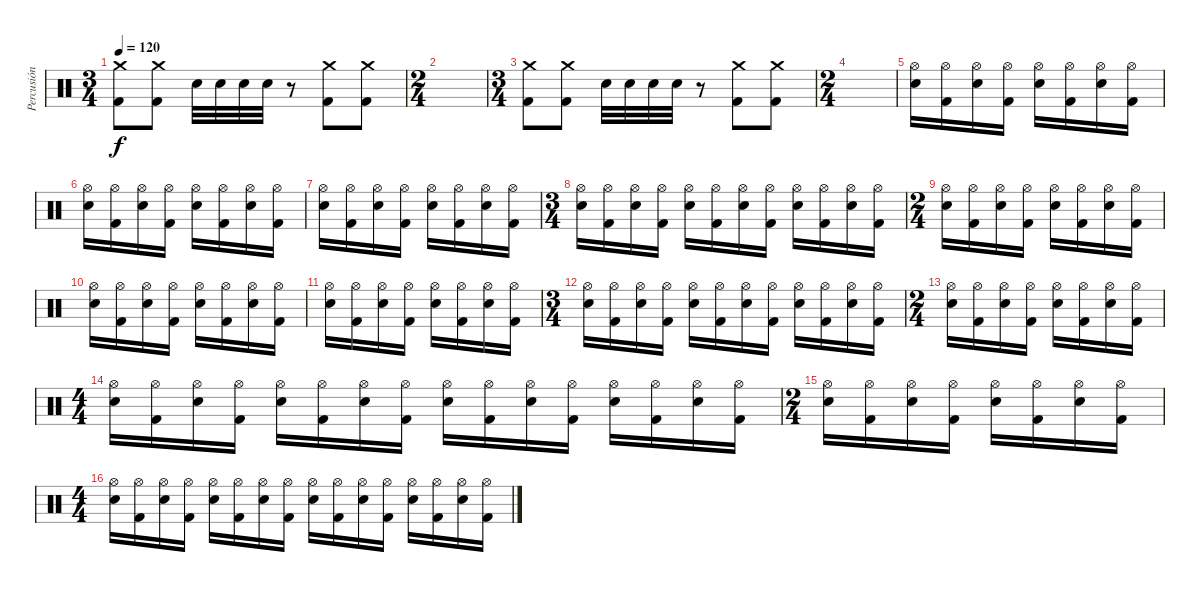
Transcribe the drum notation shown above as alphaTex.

\track ("Percusión" "Percusión") {instrument percussion}
\staff {score}
\articulation defaults
\ts (3 4)
\tempo 120
\clef neutral
\ks c
("Kick (hit) 2" "Crash medium (hit)").8{dy f} ("Kick (hit) 2" "Crash medium (hit)").8 "Snare (hit) 2".32 "Snare (hit) 2".32 "Snare (hit) 2".32 "Snare (hit) 2".32 r.8 ("Kick (hit) 2" "Crash medium (hit)").8 ("Kick (hit) 2" "Crash medium (hit)").8 |
\ts (2 4)
|
\ts (3 4)
("Kick (hit) 2" "Crash medium (hit)").8 ("Kick (hit) 2" "Crash medium (hit)").8 "Snare (hit) 2".32 "Snare (hit) 2".32 "Snare (hit) 2".32 "Snare (hit) 2".32 r.8 ("Kick (hit) 2" "Crash medium (hit)").8 ("Kick (hit) 2" "Crash medium (hit)").8 |
\ts (2 4)
|
("Hi-Hat (open)" "Snare (hit) 2").16 ("Hi-Hat (open)" "Kick (hit) 2").16 ("Hi-Hat (open)" "Snare (hit) 2").16 ("Hi-Hat (open)" "Kick (hit) 2").16 ("Hi-Hat (open)" "Snare (hit) 2").16 ("Hi-Hat (open)" "Kick (hit) 2").16 ("Hi-Hat (open)" "Snare (hit) 2").16 ("Hi-Hat (open)" "Kick (hit) 2").16 |
("Hi-Hat (open)" "Snare (hit) 2").16 ("Hi-Hat (open)" "Kick (hit) 2").16 ("Hi-Hat (open)" "Snare (hit) 2").16 ("Hi-Hat (open)" "Kick (hit) 2").16 ("Hi-Hat (open)" "Snare (hit) 2").16 ("Hi-Hat (open)" "Kick (hit) 2").16 ("Hi-Hat (open)" "Snare (hit) 2").16 ("Hi-Hat (open)" "Kick (hit) 2").16 |
("Hi-Hat (open)" "Snare (hit) 2").16 ("Hi-Hat (open)" "Kick (hit) 2").16 ("Hi-Hat (open)" "Snare (hit) 2").16 ("Hi-Hat (open)" "Kick (hit) 2").16 ("Hi-Hat (open)" "Snare (hit) 2").16 ("Hi-Hat (open)" "Kick (hit) 2").16 ("Hi-Hat (open)" "Snare (hit) 2").16 ("Hi-Hat (open)" "Kick (hit) 2").16 |
\ts (3 4)
("Snare (hit) 2" "Hi-Hat (open)").16 ("Kick (hit) 2" "Hi-Hat (open)").16 ("Snare (hit) 2" "Hi-Hat (open)").16 ("Kick (hit) 2" "Hi-Hat (open)").16 ("Snare (hit) 2" "Hi-Hat (open)").16 ("Kick (hit) 2" "Hi-Hat (open)").16 ("Snare (hit) 2" "Hi-Hat (open)").16 ("Kick (hit) 2" "Hi-Hat (open)").16 ("Snare (hit) 2" "Hi-Hat (open)").16 ("Kick (hit) 2" "Hi-Hat (open)").16 ("Snare (hit) 2" "Hi-Hat (open)").16 ("Kick (hit) 2" "Hi-Hat (open)").16 |
\ts (2 4)
("Hi-Hat (open)" "Snare (hit) 2").16 ("Hi-Hat (open)" "Kick (hit) 2").16 ("Hi-Hat (open)" "Snare (hit) 2").16 ("Hi-Hat (open)" "Kick (hit) 2").16 ("Hi-Hat (open)" "Snare (hit) 2").16 ("Hi-Hat (open)" "Kick (hit) 2").16 ("Hi-Hat (open)" "Snare (hit) 2").16 ("Hi-Hat (open)" "Kick (hit) 2").16 |
("Hi-Hat (open)" "Snare (hit) 2").16 ("Hi-Hat (open)" "Kick (hit) 2").16 ("Hi-Hat (open)" "Snare (hit) 2").16 ("Hi-Hat (open)" "Kick (hit) 2").16 ("Hi-Hat (open)" "Snare (hit) 2").16 ("Hi-Hat (open)" "Kick (hit) 2").16 ("Hi-Hat (open)" "Snare (hit) 2").16 ("Hi-Hat (open)" "Kick (hit) 2").16 |
("Hi-Hat (open)" "Snare (hit) 2").16 ("Hi-Hat (open)" "Kick (hit) 2").16 ("Hi-Hat (open)" "Snare (hit) 2").16 ("Hi-Hat (open)" "Kick (hit) 2").16 ("Hi-Hat (open)" "Snare (hit) 2").16 ("Hi-Hat (open)" "Kick (hit) 2").16 ("Hi-Hat (open)" "Snare (hit) 2").16 ("Hi-Hat (open)" "Kick (hit) 2").16 |
\ts (3 4)
("Snare (hit) 2" "Hi-Hat (open)").16 ("Kick (hit) 2" "Hi-Hat (open)").16 ("Snare (hit) 2" "Hi-Hat (open)").16 ("Kick (hit) 2" "Hi-Hat (open)").16 ("Snare (hit) 2" "Hi-Hat (open)").16 ("Kick (hit) 2" "Hi-Hat (open)").16 ("Snare (hit) 2" "Hi-Hat (open)").16 ("Kick (hit) 2" "Hi-Hat (open)").16 ("Snare (hit) 2" "Hi-Hat (open)").16 ("Kick (hit) 2" "Hi-Hat (open)").16 ("Snare (hit) 2" "Hi-Hat (open)").16 ("Kick (hit) 2" "Hi-Hat (open)").16 |
\ts (2 4)
("Hi-Hat (open)" "Snare (hit) 2").16 ("Hi-Hat (open)" "Kick (hit) 2").16 ("Hi-Hat (open)" "Snare (hit) 2").16 ("Hi-Hat (open)" "Kick (hit) 2").16 ("Hi-Hat (open)" "Snare (hit) 2").16 ("Hi-Hat (open)" "Kick (hit) 2").16 ("Hi-Hat (open)" "Snare (hit) 2").16 ("Hi-Hat (open)" "Kick (hit) 2").16 |
\ts (4 4)
("Snare (hit) 2" "Hi-Hat (open)").16 ("Kick (hit) 2" "Hi-Hat (open)").16 ("Snare (hit) 2" "Hi-Hat (open)").16 ("Kick (hit) 2" "Hi-Hat (open)").16 ("Snare (hit) 2" "Hi-Hat (open)").16 ("Kick (hit) 2" "Hi-Hat (open)").16 ("Snare (hit) 2" "Hi-Hat (open)").16 ("Kick (hit) 2" "Hi-Hat (open)").16 ("Snare (hit) 2" "Hi-Hat (open)").16 ("Kick (hit) 2" "Hi-Hat (open)").16 ("Snare (hit) 2" "Hi-Hat (open)").16 ("Kick (hit) 2" "Hi-Hat (open)").16 ("Snare (hit) 2" "Hi-Hat (open)").16 ("Kick (hit) 2" "Hi-Hat (open)").16 ("Snare (hit) 2" "Hi-Hat (open)").16 ("Kick (hit) 2" "Hi-Hat (open)").16 |
\ts (2 4)
("Hi-Hat (open)" "Snare (hit) 2").16 ("Hi-Hat (open)" "Kick (hit) 2").16 ("Hi-Hat (open)" "Snare (hit) 2").16 ("Hi-Hat (open)" "Kick (hit) 2").16 ("Hi-Hat (open)" "Snare (hit) 2").16 ("Hi-Hat (open)" "Kick (hit) 2").16 ("Hi-Hat (open)" "Snare (hit) 2").16 ("Hi-Hat (open)" "Kick (hit) 2").16 |
\ts (4 4)
("Snare (hit) 2" "Hi-Hat (open)").16 ("Kick (hit) 2" "Hi-Hat (open)").16 ("Snare (hit) 2" "Hi-Hat (open)").16 ("Kick (hit) 2" "Hi-Hat (open)").16 ("Snare (hit) 2" "Hi-Hat (open)").16 ("Kick (hit) 2" "Hi-Hat (open)").16 ("Snare (hit) 2" "Hi-Hat (open)").16 ("Kick (hit) 2" "Hi-Hat (open)").16 ("Snare (hit) 2" "Hi-Hat (open)").16 ("Kick (hit) 2" "Hi-Hat (open)").16 ("Snare (hit) 2" "Hi-Hat (open)").16 ("Kick (hit) 2" "Hi-Hat (open)").16 ("Snare (hit) 2" "Hi-Hat (open)").16 ("Kick (hit) 2" "Hi-Hat (open)").16 ("Snare (hit) 2" "Hi-Hat (open)").16 ("Kick (hit) 2" "Hi-Hat (open)").16
